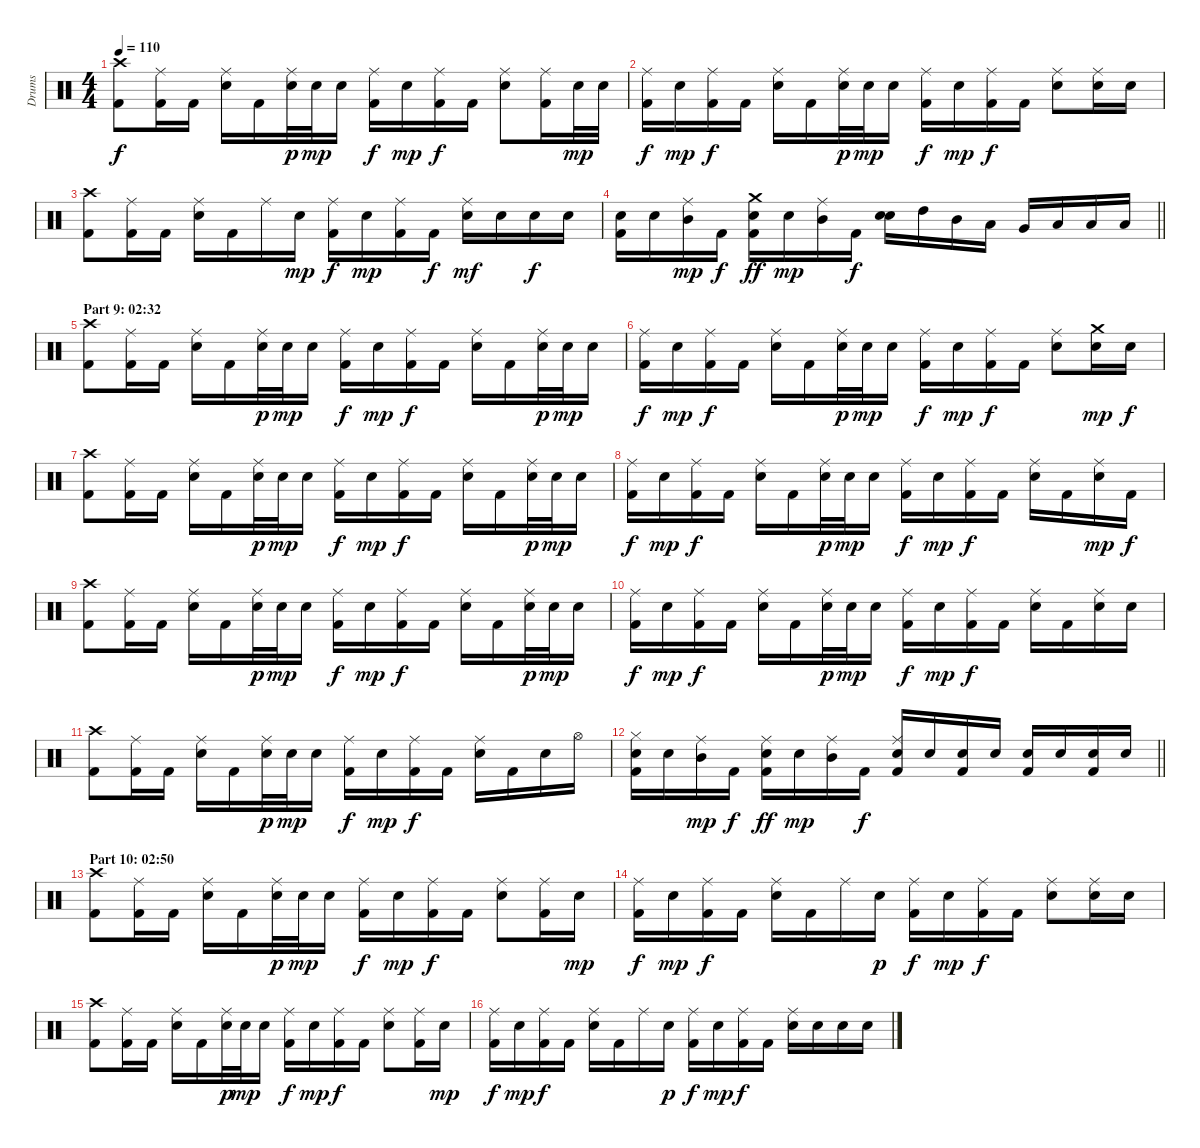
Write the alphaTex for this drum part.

\track ("Drums" "Drums") {instrument percussion}
\staff {score}
\articulation defaults
\ts (4 4)
\tempo 110
\clef neutral
\ks c
("Crash high (hit)" "Kick (hit) 2").8{dy f} ("Ride (middle)" "Kick (hit) 2").16 "Kick (hit) 2".16 ("Ride (middle)" "Electric Snare (hit)").16 "Kick (hit) 2".16 ("Ride (middle)" "Electric Snare (hit)").32{dy p} "Electric Snare (hit)".32{dy mp} "Electric Snare (hit)".16 ("Ride (middle)" "Kick (hit) 2").16{dy f} "Electric Snare (hit)".16{dy mp} ("Ride (middle)" "Kick (hit) 2").16{dy f} "Kick (hit) 2".16 ("Ride (middle)" "Electric Snare (hit)").8 ("Ride (middle)" "Kick (hit) 2").16 "Electric Snare (hit)".32{dy mp} "Electric Snare (hit)".32 |
("Ride (middle)" "Kick (hit) 2").16{dy f} "Electric Snare (hit)".16{dy mp} ("Ride (middle)" "Kick (hit) 2").16{dy f} "Kick (hit) 2".16 ("Ride (middle)" "Electric Snare (hit)").16 "Kick (hit) 2".16 ("Ride (middle)" "Electric Snare (hit)").32{dy p} "Electric Snare (hit)".32{dy mp} "Electric Snare (hit)".16 ("Ride (middle)" "Kick (hit) 2").16{dy f} "Electric Snare (hit)".16{dy mp} ("Ride (middle)" "Kick (hit) 2").16{dy f} "Kick (hit) 2".16 ("Ride (middle)" "Electric Snare (hit)").8 ("Ride (middle)" "Electric Snare (hit)").16 "Electric Snare (hit)".16 |
("Crash high (hit)" "Kick (hit) 2").8 ("Ride (middle)" "Kick (hit) 2").16 "Kick (hit) 2".16 ("Ride (middle)" "Electric Snare (hit)").16 "Kick (hit) 2".16 "Ride (middle)".16 "Electric Snare (hit)".16{dy mp} ("Ride (middle)" "Kick (hit) 2").16{dy f} "Electric Snare (hit)".16{dy mp} ("Ride (middle)" "Kick (hit) 2").16 "Kick (hit) 2".16{dy f} ("Ride (middle)" "Electric Snare (hit)").16{dy mf} "Electric Snare (hit)".16 "Electric Snare (hit)".16{dy f} "Electric Snare (hit)".16 |
\barLineRight lightlight
("Electric Snare (hit)" "Kick (hit) 2").16 "Electric Snare (hit)".16 ("Ride (middle)" "Mid Tom (hit)").16{dy mp} "Kick (hit) 2".16{dy f} ("Crash medium (hit)" "Electric Snare (hit)" "Kick (hit) 2").16{dy ff} "Electric Snare (hit)".16{dy mp} ("Ride (middle)" "Mid Tom (hit)").16 "Kick (hit) 2".16{dy f} ("Electric Snare (hit)" "Electric Snare (hit)").16{bu 120} "High Tom (hit)".16 "Mid Tom (hit)".16 "Low Tom (hit)".16 "Very Low Tom (hit)".16 "Low Floor Tom (hit)".16 "Low Floor Tom (hit)".16 "Low Floor Tom (hit)".16 |
\section ("" "Part 9: 02:32")
("Crash high (hit)" "Kick (hit) 2").8 ("Ride (middle)" "Kick (hit) 2").16 "Kick (hit) 2".16 ("Ride (middle)" "Electric Snare (hit)").16 "Kick (hit) 2".16 ("Ride (middle)" "Electric Snare (hit)").32{dy p} "Electric Snare (hit)".32{dy mp} "Electric Snare (hit)".16 ("Ride (middle)" "Kick (hit) 2").16{dy f} "Electric Snare (hit)".16{dy mp} ("Ride (middle)" "Kick (hit) 2").16{dy f} "Kick (hit) 2".16 ("Ride (middle)" "Electric Snare (hit)").16 "Kick (hit) 2".16 ("Ride (middle)" "Electric Snare (hit)").32{dy p} "Electric Snare (hit)".32{dy mp} "Electric Snare (hit)".16 |
("Ride (middle)" "Kick (hit) 2").16{dy f} "Electric Snare (hit)".16{dy mp} ("Ride (middle)" "Kick (hit) 2").16{dy f} "Kick (hit) 2".16 ("Ride (middle)" "Electric Snare (hit)").16 "Kick (hit) 2".16 ("Ride (middle)" "Electric Snare (hit)").32{dy p} "Electric Snare (hit)".32{dy mp} "Electric Snare (hit)".16 ("Ride (middle)" "Kick (hit) 2").16{dy f} "Electric Snare (hit)".16{dy mp} ("Ride (middle)" "Kick (hit) 2").16{dy f} "Kick (hit) 2".16 ("Ride (middle)" "Electric Snare (hit)").8 ("Crash medium (hit)" "Electric Snare (hit)").16{dy mp} "Electric Snare (hit)".16{dy f} |
("Crash high (hit)" "Kick (hit) 2").8 ("Ride (middle)" "Kick (hit) 2").16 "Kick (hit) 2".16 ("Ride (middle)" "Electric Snare (hit)").16 "Kick (hit) 2".16 ("Ride (middle)" "Electric Snare (hit)").32{dy p} "Electric Snare (hit)".32{dy mp} "Electric Snare (hit)".16 ("Ride (middle)" "Kick (hit) 2").16{dy f} "Electric Snare (hit)".16{dy mp} ("Ride (middle)" "Kick (hit) 2").16{dy f} "Kick (hit) 2".16 ("Ride (middle)" "Electric Snare (hit)").16 "Kick (hit) 2".16 ("Ride (middle)" "Electric Snare (hit)").32{dy p} "Electric Snare (hit)".32{dy mp} "Electric Snare (hit)".16 |
("Ride (middle)" "Kick (hit) 2").16{dy f} "Electric Snare (hit)".16{dy mp} ("Ride (middle)" "Kick (hit) 2").16{dy f} "Kick (hit) 2".16 ("Ride (middle)" "Electric Snare (hit)").16 "Kick (hit) 2".16 ("Ride (middle)" "Electric Snare (hit)").32{dy p} "Electric Snare (hit)".32{dy mp} "Electric Snare (hit)".16 ("Ride (middle)" "Kick (hit) 2").16{dy f} "Electric Snare (hit)".16{dy mp} ("Ride (middle)" "Kick (hit) 2").16{dy f} "Kick (hit) 2".16 ("Ride (middle)" "Electric Snare (hit)").16 "Kick (hit) 2".16 ("Ride (middle)" "Electric Snare (hit)").16{dy mp} "Kick (hit) 2".16{dy f} |
("Crash high (hit)" "Kick (hit) 2").8 ("Ride (middle)" "Kick (hit) 2").16 "Kick (hit) 2".16 ("Ride (middle)" "Electric Snare (hit)").16 "Kick (hit) 2".16 ("Ride (middle)" "Electric Snare (hit)").32{dy p} "Electric Snare (hit)".32{dy mp} "Electric Snare (hit)".16 ("Ride (middle)" "Kick (hit) 2").16{dy f} "Electric Snare (hit)".16{dy mp} ("Ride (middle)" "Kick (hit) 2").16{dy f} "Kick (hit) 2".16 ("Ride (middle)" "Electric Snare (hit)").16 "Kick (hit) 2".16 ("Ride (middle)" "Electric Snare (hit)").32{dy p} "Electric Snare (hit)".32{dy mp} "Electric Snare (hit)".16 |
("Ride (middle)" "Kick (hit) 2").16{dy f} "Electric Snare (hit)".16{dy mp} ("Ride (middle)" "Kick (hit) 2").16{dy f} "Kick (hit) 2".16 ("Ride (middle)" "Electric Snare (hit)").16 "Kick (hit) 2".16 ("Ride (middle)" "Electric Snare (hit)").32{dy p} "Electric Snare (hit)".32{dy mp} "Electric Snare (hit)".16 ("Ride (middle)" "Kick (hit) 2").16{dy f} "Electric Snare (hit)".16{dy mp} ("Ride (middle)" "Kick (hit) 2").16{dy f} "Kick (hit) 2".16 ("Ride (middle)" "Electric Snare (hit)").16 "Kick (hit) 2".16 ("Ride (middle)" "Electric Snare (hit)").16 "Electric Snare (hit)".16 |
("Crash high (hit)" "Kick (hit) 2").8 ("Ride (middle)" "Kick (hit) 2").16 "Kick (hit) 2".16 ("Ride (middle)" "Electric Snare (hit)").16 "Kick (hit) 2".16 ("Ride (middle)" "Electric Snare (hit)").32{dy p} "Electric Snare (hit)".32{dy mp} "Electric Snare (hit)".16 ("Ride (middle)" "Kick (hit) 2").16{dy f} "Electric Snare (hit)".16{dy mp} ("Ride (middle)" "Kick (hit) 2").16{dy f} "Kick (hit) 2".16 ("Ride (middle)" "Electric Snare (hit)").16 "Kick (hit) 2".16 "Electric Snare (hit)".16 "Hi-Hat (open)".16 |
\barLineRight lightlight
("Hi-Hat (closed)" "Electric Snare (hit)" "Kick (hit) 2").16 "Electric Snare (hit)".16 ("Ride (middle)" "Mid Tom (hit)").16{dy mp} "Kick (hit) 2".16{dy f} ("Ride (middle)" "Electric Snare (hit)" "Kick (hit) 2").16{dy ff} "Electric Snare (hit)".16{dy mp} ("Ride (middle)" "Mid Tom (hit)").16 "Kick (hit) 2".16{dy f} ("Ride (middle)" "Electric Snare (hit)" "Kick (hit) 2").16 "Electric Snare (hit)".16 ("Electric Snare (hit)" "Kick (hit) 2").16 "Electric Snare (hit)".16 ("Electric Snare (hit)" "Kick (hit) 2").16 "Electric Snare (hit)".16 ("Electric Snare (hit)" "Kick (hit) 2").16 "Electric Snare (hit)".16 |
\section ("" "Part 10: 02:50")
("Crash high (hit)" "Kick (hit) 2").8 ("Ride (middle)" "Kick (hit) 2").16 "Kick (hit) 2".16 ("Ride (middle)" "Electric Snare (hit)").16 "Kick (hit) 2".16 ("Ride (middle)" "Electric Snare (hit)").32{dy p} "Electric Snare (hit)".32{dy mp} "Electric Snare (hit)".16 ("Ride (middle)" "Kick (hit) 2").16{dy f} "Electric Snare (hit)".16{dy mp} ("Ride (middle)" "Kick (hit) 2").16{dy f} "Kick (hit) 2".16 ("Ride (middle)" "Electric Snare (hit)").8 ("Ride (middle)" "Kick (hit) 2").16 "Electric Snare (hit)".16{dy mp} |
("Ride (middle)" "Kick (hit) 2").16{dy f} "Electric Snare (hit)".16{dy mp} ("Ride (middle)" "Kick (hit) 2").16{dy f} "Kick (hit) 2".16 ("Ride (middle)" "Electric Snare (hit)").16 "Kick (hit) 2".16 "Ride (middle)".16 "Electric Snare (hit)".16{dy p} ("Ride (middle)" "Kick (hit) 2").16{dy f} "Electric Snare (hit)".16{dy mp} ("Ride (middle)" "Kick (hit) 2").16{dy f} "Kick (hit) 2".16 ("Ride (middle)" "Electric Snare (hit)").8 ("Ride (middle)" "Electric Snare (hit)").16 "Electric Snare (hit)".16 |
("Crash high (hit)" "Kick (hit) 2").8 ("Ride (middle)" "Kick (hit) 2").16 "Kick (hit) 2".16 ("Ride (middle)" "Electric Snare (hit)").16 "Kick (hit) 2".16 ("Ride (middle)" "Electric Snare (hit)").32{dy p} "Electric Snare (hit)".32{dy mp} "Electric Snare (hit)".16 ("Ride (middle)" "Kick (hit) 2").16{dy f} "Electric Snare (hit)".16{dy mp} ("Ride (middle)" "Kick (hit) 2").16{dy f} "Kick (hit) 2".16 ("Ride (middle)" "Electric Snare (hit)").8 ("Ride (middle)" "Kick (hit) 2").16 "Electric Snare (hit)".16{dy mp} |
("Ride (middle)" "Kick (hit) 2").16{dy f} "Electric Snare (hit)".16{dy mp} ("Ride (middle)" "Kick (hit) 2").16{dy f} "Kick (hit) 2".16 ("Ride (middle)" "Electric Snare (hit)").16 "Kick (hit) 2".16 "Ride (middle)".16 "Electric Snare (hit)".16{dy p} ("Ride (middle)" "Kick (hit) 2").16{dy f} "Electric Snare (hit)".16{dy mp} ("Ride (middle)" "Kick (hit) 2").16{dy f} "Kick (hit) 2".16 ("Ride (middle)" "Electric Snare (hit)").16 "Electric Snare (hit)".16 "Electric Snare (hit)".16 "Electric Snare (hit)".16
